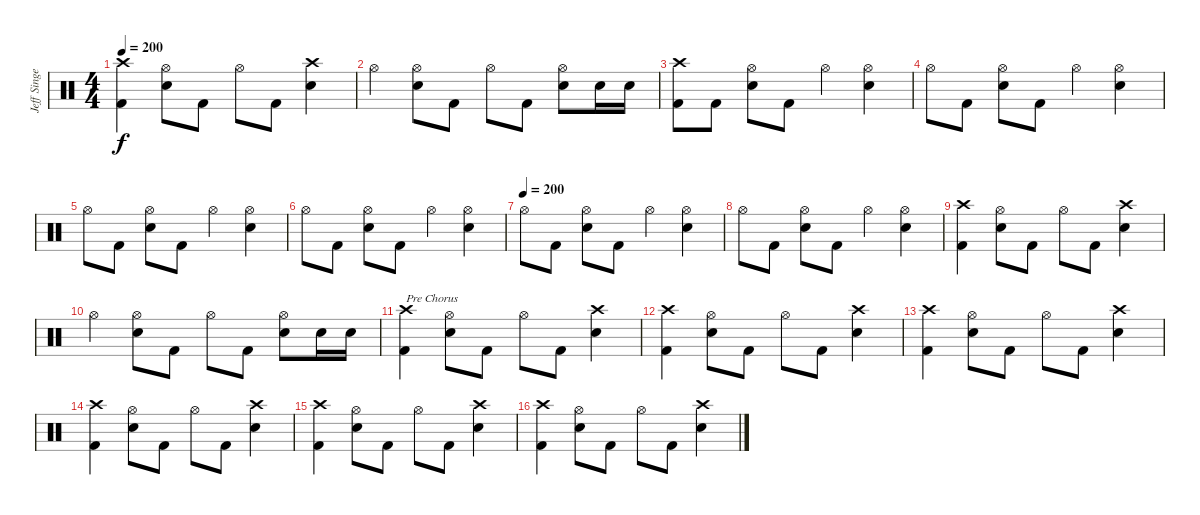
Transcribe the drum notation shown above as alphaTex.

\track ("Jeff Singer" "Jeff Singe") {instrument percussion}
\staff {score}
\articulation defaults
\ts (4 4)
\tempo 200
\clef neutral
\ks c
("Crash high (hit)" "Kick (hit) 2").4{dy f} ("Hi-Hat (open)" "Snare (hit) 2").8 "Kick (hit) 2".8 "Hi-Hat (open)".8 "Kick (hit) 2".8 ("Crash high (hit)" "Snare (hit) 2").4 |
"Hi-Hat (open)".4 ("Hi-Hat (open)" "Snare (hit) 2").8 "Kick (hit) 2".8 "Hi-Hat (open)".8 "Kick (hit) 2".8 ("Hi-Hat (open)" "Snare (hit) 2").8 "Snare (hit) 2".16 "Snare (hit) 2".16 |
("Crash high (hit)" "Kick (hit) 2").8 "Kick (hit) 2".8 ("Hi-Hat (open)" "Snare (hit) 2").8 "Kick (hit) 2".8 "Hi-Hat (open)".4 ("Hi-Hat (open)" "Snare (hit) 2").4 |
"Hi-Hat (open)".8 "Kick (hit) 2".8 ("Hi-Hat (open)" "Snare (hit) 2").8 "Kick (hit) 2".8 "Hi-Hat (open)".4 ("Hi-Hat (open)" "Snare (hit) 2").4 |
"Hi-Hat (open)".8 "Kick (hit) 2".8 ("Hi-Hat (open)" "Snare (hit) 2").8 "Kick (hit) 2".8 "Hi-Hat (open)".4 ("Hi-Hat (open)" "Snare (hit) 2").4 |
"Hi-Hat (open)".8 "Kick (hit) 2".8 ("Hi-Hat (open)" "Snare (hit) 2").8 "Kick (hit) 2".8 "Hi-Hat (open)".4 ("Hi-Hat (open)" "Snare (hit) 2").4 |
\tempo (200)
"Hi-Hat (open)".8 "Kick (hit) 2".8 ("Hi-Hat (open)" "Snare (hit) 2").8 "Kick (hit) 2".8 "Hi-Hat (open)".4 ("Hi-Hat (open)" "Snare (hit) 2").4 |
"Hi-Hat (open)".8 "Kick (hit) 2".8 ("Hi-Hat (open)" "Snare (hit) 2").8 "Kick (hit) 2".8 "Hi-Hat (open)".4 ("Hi-Hat (open)" "Snare (hit) 2").4 |
("Crash high (hit)" "Kick (hit) 2").4 ("Hi-Hat (open)" "Snare (hit) 2").8 "Kick (hit) 2".8 "Hi-Hat (open)".8 "Kick (hit) 2".8 ("Crash high (hit)" "Snare (hit) 2").4 |
"Hi-Hat (open)".4 ("Hi-Hat (open)" "Snare (hit) 2").8 "Kick (hit) 2".8 "Hi-Hat (open)".8 "Kick (hit) 2".8 ("Hi-Hat (open)" "Snare (hit) 2").8 "Snare (hit) 2".16 "Snare (hit) 2".16 |
("Crash high (hit)" "Kick (hit) 2").4{txt "Pre Chorus"} ("Hi-Hat (open)" "Snare (hit) 2").8 "Kick (hit) 2".8 "Hi-Hat (open)".8 "Kick (hit) 2".8 ("Crash high (hit)" "Snare (hit) 2").4 |
("Crash high (hit)" "Kick (hit) 2").4 ("Hi-Hat (open)" "Snare (hit) 2").8 "Kick (hit) 2".8 "Hi-Hat (open)".8 "Kick (hit) 2".8 ("Crash high (hit)" "Snare (hit) 2").4 |
("Crash high (hit)" "Kick (hit) 2").4 ("Hi-Hat (open)" "Snare (hit) 2").8 "Kick (hit) 2".8 "Hi-Hat (open)".8 "Kick (hit) 2".8 ("Crash high (hit)" "Snare (hit) 2").4 |
("Crash high (hit)" "Kick (hit) 2").4 ("Hi-Hat (open)" "Snare (hit) 2").8 "Kick (hit) 2".8 "Hi-Hat (open)".8 "Kick (hit) 2".8 ("Crash high (hit)" "Snare (hit) 2").4 |
("Crash high (hit)" "Kick (hit) 2").4 ("Hi-Hat (open)" "Snare (hit) 2").8 "Kick (hit) 2".8 "Hi-Hat (open)".8 "Kick (hit) 2".8 ("Crash high (hit)" "Snare (hit) 2").4 |
("Crash high (hit)" "Kick (hit) 2").4 ("Hi-Hat (open)" "Snare (hit) 2").8 "Kick (hit) 2".8 "Hi-Hat (open)".8 "Kick (hit) 2".8 ("Crash high (hit)" "Snare (hit) 2").4
